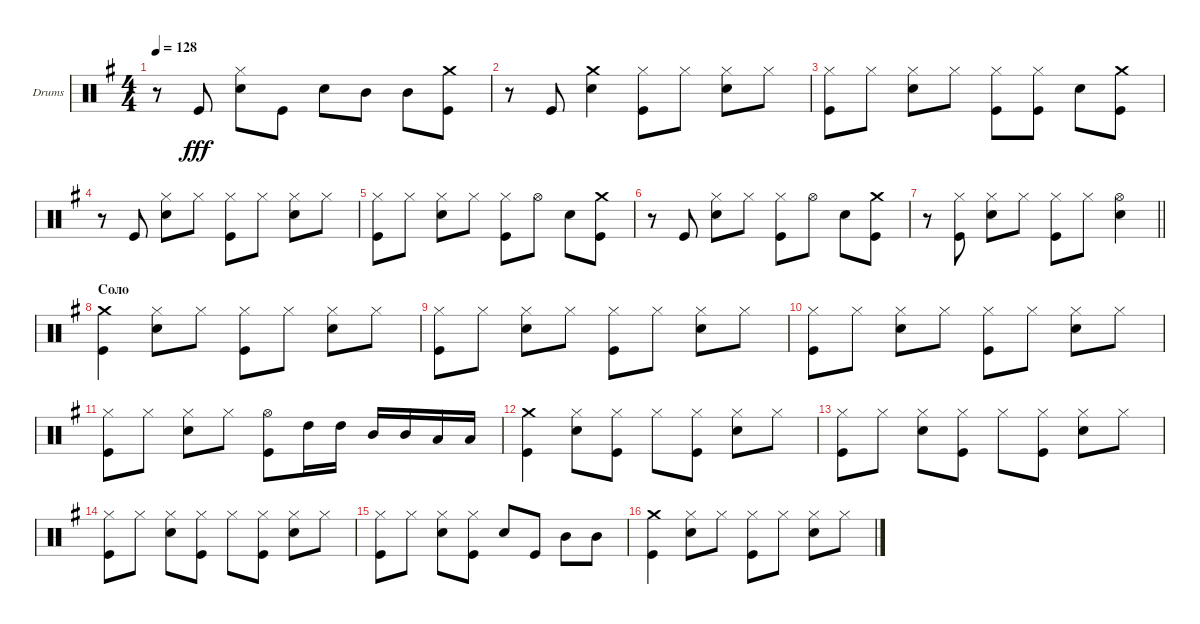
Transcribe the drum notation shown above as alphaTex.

\bracketExtendMode groupsimilarinstruments
\firstSystemTrackNameOrientation horizontal
\otherSystemsTrackNameOrientation horizontal
\track ("Барабаны" "Drums") {instrument percussion}
\staff {score}
\articulation defaults
\ts (4 4)
\tempo 128
\clef neutral
\ks eminor
r.8{dy fff} "Kick (hit)".8 ("Hi-Hat (closed)" "Snare (hit) 2").8 "Kick (hit)".8 "Snare (hit) 2".8 "Mid Tom (hit)".8 "Mid Tom (hit)".8 ("Kick (hit)" "Crash medium (hit)").8 |
r.8 "Kick (hit)".8 ("Crash medium (hit)" "Snare (hit) 2").4 ("Hi-Hat (closed)" "Kick (hit)").8 "Hi-Hat (closed)".8 ("Hi-Hat (closed)" "Snare (hit) 2").8 "Hi-Hat (closed)".8 |
("Hi-Hat (closed)" "Kick (hit)").8 "Hi-Hat (closed)".8 ("Hi-Hat (closed)" "Snare (hit) 2").8 "Hi-Hat (closed)".8 ("Kick (hit)" "Hi-Hat (closed)").8 ("Hi-Hat (closed)" "Kick (hit)").8 "Snare (hit) 2".8 ("Kick (hit)" "Crash medium (hit)").8 |
r.8 "Kick (hit)".8 ("Hi-Hat (closed)" "Snare (hit) 2").8 "Hi-Hat (closed)".8 ("Hi-Hat (closed)" "Kick (hit)").8 "Hi-Hat (closed)".8 ("Hi-Hat (closed)" "Snare (hit) 2").8 "Hi-Hat (closed)".8 |
("Hi-Hat (closed)" "Kick (hit)").8 "Hi-Hat (closed)".8 ("Hi-Hat (closed)" "Snare (hit) 2").8 "Hi-Hat (closed)".8 ("Kick (hit)" "Hi-Hat (closed)").8 "Hi-Hat (open)".8 "Snare (hit) 2".8 ("Kick (hit)" "Crash medium (hit)").8 |
r.8 "Kick (hit)".8 ("Hi-Hat (closed)" "Snare (hit) 2").8 "Hi-Hat (closed)".8 ("Kick (hit)" "Hi-Hat (closed)").8 "Hi-Hat (open)".8 "Snare (hit) 2".8 ("Kick (hit)" "Crash medium (hit)").8 |
\barLineRight lightlight
r.8 ("Kick (hit)" "Hi-Hat (closed)").8 ("Hi-Hat (closed)" "Snare (hit) 2").8 "Hi-Hat (closed)".8 ("Hi-Hat (closed)" "Kick (hit)").8 "Hi-Hat (closed)".8 ("Hi-Hat (open)" "Snare (hit) 2").4 |
\section ("" "Соло")
("Kick (hit)" "Crash medium (hit)").4 ("Hi-Hat (closed)" "Snare (hit) 2").8 "Hi-Hat (closed)".8 ("Hi-Hat (closed)" "Kick (hit)").8 "Hi-Hat (closed)".8 ("Hi-Hat (closed)" "Snare (hit) 2").8 "Hi-Hat (closed)".8 |
("Hi-Hat (closed)" "Kick (hit)").8 "Hi-Hat (closed)".8 ("Hi-Hat (closed)" "Snare (hit) 2").8 "Hi-Hat (closed)".8 ("Hi-Hat (closed)" "Kick (hit)").8 "Hi-Hat (closed)".8 ("Hi-Hat (closed)" "Snare (hit) 2").8 "Hi-Hat (closed)".8 |
("Hi-Hat (closed)" "Kick (hit)").8 "Hi-Hat (closed)".8 ("Hi-Hat (closed)" "Snare (hit) 2").8 "Hi-Hat (closed)".8 ("Hi-Hat (closed)" "Kick (hit)").8 "Hi-Hat (closed)".8 ("Hi-Hat (closed)" "Snare (hit) 2").8 "Hi-Hat (closed)".8 |
("Hi-Hat (closed)" "Kick (hit)").8 "Hi-Hat (closed)".8 ("Hi-Hat (closed)" "Snare (hit) 2").8 "Hi-Hat (closed)".8 ("Kick (hit)" "Hi-Hat (open)").8 "High Tom (hit)".16 "High Tom (hit)".16 "Mid Tom (hit)".16 "Mid Tom (hit)".16 "Low Tom (hit)".16 "Low Tom (hit)".16 |
("Crash medium (hit)" "Kick (hit)").4 ("Snare (hit) 2" "Hi-Hat (closed)").8 ("Hi-Hat (closed)" "Kick (hit)").8 "Hi-Hat (closed)".8 ("Hi-Hat (closed)" "Kick (hit)").8 ("Hi-Hat (closed)" "Snare (hit) 2").8 "Hi-Hat (closed)".8 |
("Hi-Hat (closed)" "Kick (hit)").8 "Hi-Hat (closed)".8 ("Hi-Hat (closed)" "Snare (hit) 2").8 ("Hi-Hat (closed)" "Kick (hit)").8 "Hi-Hat (closed)".8 ("Hi-Hat (closed)" "Kick (hit)").8 ("Hi-Hat (closed)" "Snare (hit) 2").8 "Hi-Hat (closed)".8 |
("Hi-Hat (closed)" "Kick (hit)").8 "Hi-Hat (closed)".8 ("Hi-Hat (closed)" "Snare (hit) 2").8 ("Hi-Hat (closed)" "Kick (hit)").8 "Hi-Hat (closed)".8 ("Hi-Hat (closed)" "Kick (hit)").8 ("Hi-Hat (closed)" "Snare (hit) 2").8 "Hi-Hat (closed)".8 |
("Hi-Hat (closed)" "Kick (hit)").8 "Hi-Hat (closed)".8 ("Hi-Hat (closed)" "Snare (hit) 2").8 ("Hi-Hat (closed)" "Kick (hit)").8 "Snare (hit) 2".8 "Kick (hit)".8 "Mid Tom (hit)".8 "Mid Tom (hit)".8 |
("Kick (hit)" "Crash medium (hit)").4 ("Hi-Hat (closed)" "Snare (hit) 2").8 "Hi-Hat (closed)".8 ("Hi-Hat (closed)" "Kick (hit)").8 "Hi-Hat (closed)".8 ("Hi-Hat (closed)" "Snare (hit) 2").8 "Hi-Hat (closed)".8
